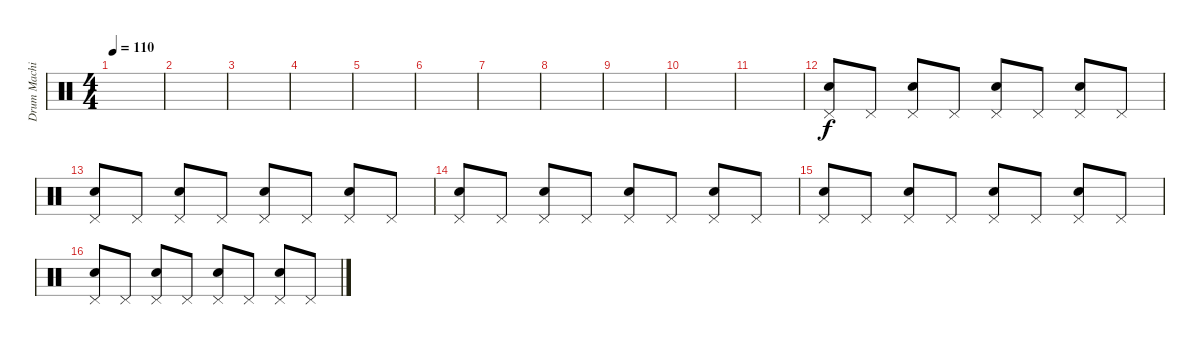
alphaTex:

\track ("Drum Machine" "Drum Machi") {instrument percussion}
\staff {score}
\articulation defaults
\ts (4 4)
\tempo 110
\clef neutral
\ks c
|
|
|
|
|
|
|
|
|
|
|
("Pedal Hi-Hat (hit)" "Snare (hit) 2").8 "Pedal Hi-Hat (hit)".8 ("Pedal Hi-Hat (hit)" "Snare (hit) 2").8 "Pedal Hi-Hat (hit)".8 ("Pedal Hi-Hat (hit)" "Snare (hit) 2").8 "Pedal Hi-Hat (hit)".8 ("Pedal Hi-Hat (hit)" "Snare (hit) 2").8 "Pedal Hi-Hat (hit)".8 |
("Pedal Hi-Hat (hit)" "Snare (hit) 2").8 "Pedal Hi-Hat (hit)".8 ("Pedal Hi-Hat (hit)" "Snare (hit) 2").8 "Pedal Hi-Hat (hit)".8 ("Pedal Hi-Hat (hit)" "Snare (hit) 2").8 "Pedal Hi-Hat (hit)".8 ("Pedal Hi-Hat (hit)" "Snare (hit) 2").8 "Pedal Hi-Hat (hit)".8 |
("Pedal Hi-Hat (hit)" "Snare (hit) 2").8 "Pedal Hi-Hat (hit)".8 ("Pedal Hi-Hat (hit)" "Snare (hit) 2").8 "Pedal Hi-Hat (hit)".8 ("Pedal Hi-Hat (hit)" "Snare (hit) 2").8 "Pedal Hi-Hat (hit)".8 ("Pedal Hi-Hat (hit)" "Snare (hit) 2").8 "Pedal Hi-Hat (hit)".8 |
("Pedal Hi-Hat (hit)" "Snare (hit) 2").8 "Pedal Hi-Hat (hit)".8 ("Pedal Hi-Hat (hit)" "Snare (hit) 2").8 "Pedal Hi-Hat (hit)".8 ("Pedal Hi-Hat (hit)" "Snare (hit) 2").8 "Pedal Hi-Hat (hit)".8 ("Pedal Hi-Hat (hit)" "Snare (hit) 2").8 "Pedal Hi-Hat (hit)".8 |
("Pedal Hi-Hat (hit)" "Snare (hit) 2").8 "Pedal Hi-Hat (hit)".8 ("Pedal Hi-Hat (hit)" "Snare (hit) 2").8 "Pedal Hi-Hat (hit)".8 ("Pedal Hi-Hat (hit)" "Snare (hit) 2").8 "Pedal Hi-Hat (hit)".8 ("Pedal Hi-Hat (hit)" "Snare (hit) 2").8 "Pedal Hi-Hat (hit)".8
